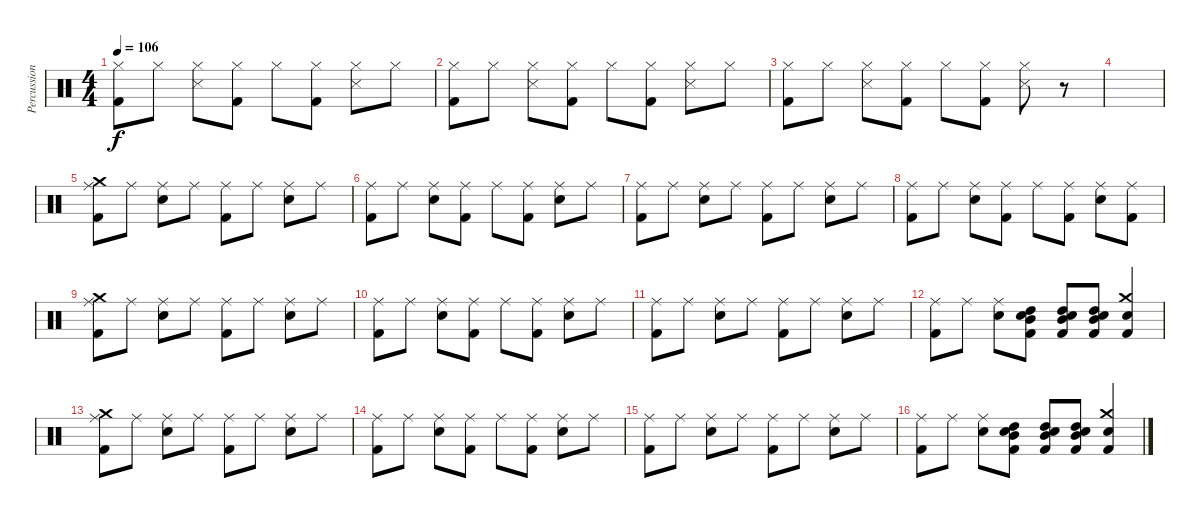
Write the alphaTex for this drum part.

\track ("Percussion" "Percussion") {instrument percussion}
\staff {score}
\articulation defaults
\ts (4 4)
\tempo 106
\clef neutral
\ks c
("Hi-Hat (closed)" "Kick (hit) 2").8{dy f} "Hi-Hat (closed)".8 ("Hi-Hat (closed)" "Snare (side stick) 3").8 ("Hi-Hat (closed)" "Kick (hit) 2").8 "Hi-Hat (closed)".8 ("Hi-Hat (closed)" "Kick (hit) 2").8 ("Hi-Hat (closed)" "Snare (side stick) 3").8 "Hi-Hat (closed)".8 |
("Hi-Hat (closed)" "Kick (hit) 2").8 "Hi-Hat (closed)".8 ("Hi-Hat (closed)" "Snare (side stick) 3").8 ("Hi-Hat (closed)" "Kick (hit) 2").8 "Hi-Hat (closed)".8 ("Hi-Hat (closed)" "Kick (hit) 2").8 ("Hi-Hat (closed)" "Snare (side stick) 3").8 "Hi-Hat (closed)".8 |
("Hi-Hat (closed)" "Kick (hit) 2").8 "Hi-Hat (closed)".8 ("Hi-Hat (closed)" "Snare (side stick) 3").8 ("Hi-Hat (closed)" "Kick (hit) 2").8 "Hi-Hat (closed)".8 ("Hi-Hat (closed)" "Kick (hit) 2").8 ("Hi-Hat (closed)" "Snare (side stick) 3").8 r.8 |
|
("Ride (middle)" "Kick (hit) 2" "Crash medium (hit)").8 "Ride (middle)".8 ("Ride (middle)" "Electric Snare (hit)").8 "Ride (middle)".8 ("Ride (middle)" "Kick (hit) 2").8 "Ride (middle)".8 ("Ride (middle)" "Electric Snare (hit)").8 "Ride (middle)".8 |
("Ride (middle)" "Kick (hit) 2").8 "Ride (middle)".8 ("Ride (middle)" "Electric Snare (hit)").8 ("Ride (middle)" "Kick (hit) 2").8 "Ride (middle)".8 ("Ride (middle)" "Kick (hit) 2").8 ("Ride (middle)" "Electric Snare (hit)").8 "Ride (middle)".8 |
("Ride (middle)" "Kick (hit) 2").8 "Ride (middle)".8 ("Ride (middle)" "Electric Snare (hit)").8 "Ride (middle)".8 ("Ride (middle)" "Kick (hit) 2").8 "Ride (middle)".8 ("Ride (middle)" "Electric Snare (hit)").8 "Ride (middle)".8 |
("Ride (middle)" "Kick (hit) 2").8 "Ride (middle)".8 ("Ride (middle)" "Electric Snare (hit)").8 ("Ride (middle)" "Kick (hit) 2").8 "Ride (middle)".8 ("Ride (middle)" "Kick (hit) 2").8 ("Ride (middle)" "Electric Snare (hit)").8 ("Ride (middle)" "Kick (hit) 2").8 |
("Ride (middle)" "Kick (hit) 2" "Crash medium (hit)").8 "Ride (middle)".8 ("Ride (middle)" "Electric Snare (hit)").8 "Ride (middle)".8 ("Ride (middle)" "Kick (hit) 2").8 "Ride (middle)".8 ("Ride (middle)" "Electric Snare (hit)").8 "Ride (middle)".8 |
("Ride (middle)" "Kick (hit) 2").8 "Ride (middle)".8 ("Ride (middle)" "Electric Snare (hit)").8 ("Ride (middle)" "Kick (hit) 2").8 "Ride (middle)".8 ("Ride (middle)" "Kick (hit) 2").8 ("Ride (middle)" "Electric Snare (hit)").8 "Ride (middle)".8 |
("Ride (middle)" "Kick (hit) 2").8 "Ride (middle)".8 ("Ride (middle)" "Electric Snare (hit)").8 "Ride (middle)".8 ("Ride (middle)" "Kick (hit) 2").8 "Ride (middle)".8 ("Ride (middle)" "Electric Snare (hit)").8 "Ride (middle)".8 |
("Ride (middle)" "Kick (hit) 2").8 "Ride (middle)".8 ("Ride (middle)" "Snare (hit) 2").8 ("Electric Snare (hit)" "Kick (hit) 2" "High Tom (hit)" "Mid Tom (hit)").8 ("Electric Snare (hit)" "Kick (hit) 2" "High Tom (hit)" "Mid Tom (hit)").8 ("Electric Snare (hit)" "Kick (hit) 2" "High Tom (hit)" "Mid Tom (hit)").8 ("Electric Snare (hit)" "Kick (hit) 2" "Crash medium (hit)").4 |
("Ride (middle)" "Kick (hit) 2" "Crash medium (hit)").8 "Ride (middle)".8 ("Ride (middle)" "Electric Snare (hit)").8 "Ride (middle)".8 ("Ride (middle)" "Kick (hit) 2").8 "Ride (middle)".8 ("Ride (middle)" "Electric Snare (hit)").8 "Ride (middle)".8 |
("Ride (middle)" "Kick (hit) 2").8 "Ride (middle)".8 ("Ride (middle)" "Electric Snare (hit)").8 ("Ride (middle)" "Kick (hit) 2").8 "Ride (middle)".8 ("Ride (middle)" "Kick (hit) 2").8 ("Ride (middle)" "Electric Snare (hit)").8 "Ride (middle)".8 |
("Ride (middle)" "Kick (hit) 2").8 "Ride (middle)".8 ("Ride (middle)" "Electric Snare (hit)").8 "Ride (middle)".8 ("Ride (middle)" "Kick (hit) 2").8 "Ride (middle)".8 ("Ride (middle)" "Electric Snare (hit)").8 "Ride (middle)".8 |
("Ride (middle)" "Kick (hit) 2").8 "Ride (middle)".8 ("Ride (middle)" "Snare (hit) 2").8 ("Electric Snare (hit)" "Kick (hit) 2" "High Tom (hit)" "Mid Tom (hit)").8 ("Electric Snare (hit)" "Kick (hit) 2" "High Tom (hit)" "Mid Tom (hit)").8 ("Electric Snare (hit)" "Kick (hit) 2" "High Tom (hit)" "Mid Tom (hit)").8 ("Electric Snare (hit)" "Kick (hit) 2" "Crash medium (hit)").4
